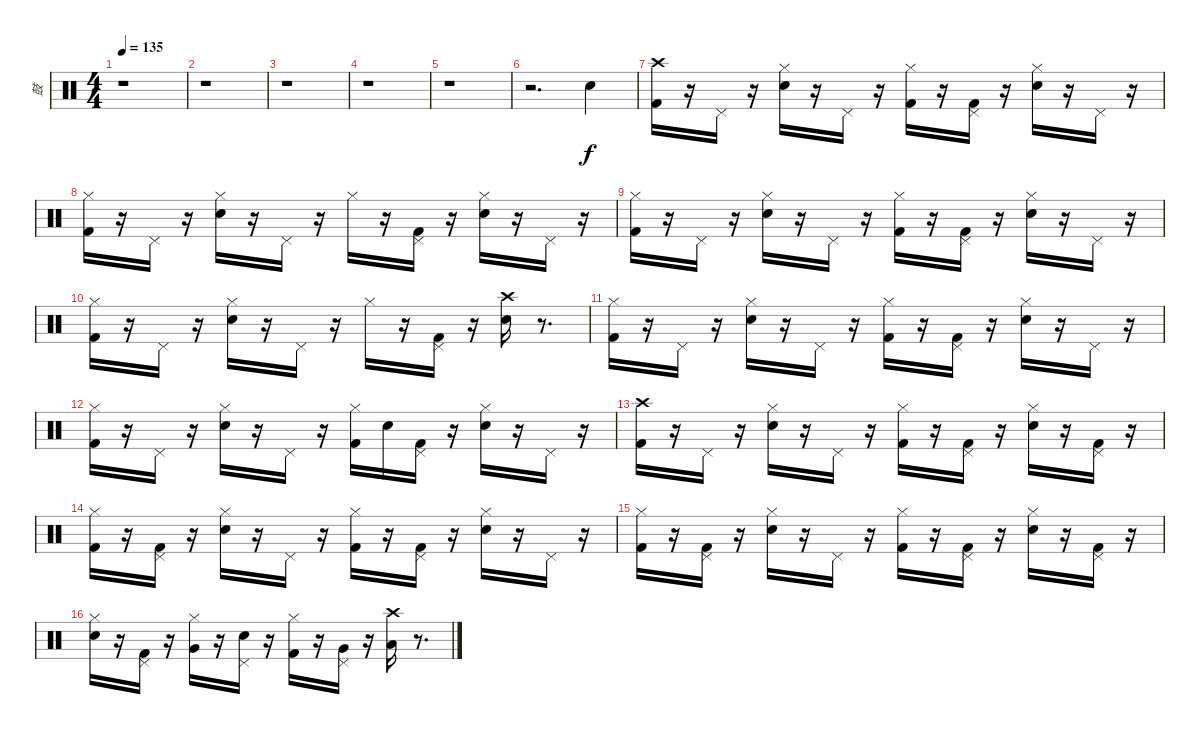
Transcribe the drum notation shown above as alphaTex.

\track ("鼓" "鼓") {instrument percussion}
\staff {score}
\articulation defaults
\ts (4 4)
\tempo 135
\clef neutral
\ks c
r.1{dy f} |
r.1 |
r.1 |
r.1 |
r.1 |
r.2{d} "Electric Snare (hit)".4 |
("Crash high (hit)" "Kick (hit) 2").16 r.16 "Pedal Hi-Hat (hit)".16 r.16 ("Hi-Hat (closed)" "Electric Snare (hit)").16 r.16 "Pedal Hi-Hat (hit)".16 r.16 ("Hi-Hat (closed)" "Kick (hit) 2").16 r.16 ("Pedal Hi-Hat (hit)" "Kick (hit) 2").16 r.16 ("Hi-Hat (closed)" "Electric Snare (hit)").16 r.16 "Pedal Hi-Hat (hit)".16 r.16 |
("Hi-Hat (closed)" "Kick (hit) 2").16 r.16 "Pedal Hi-Hat (hit)".16 r.16 ("Electric Snare (hit)" "Hi-Hat (closed)").16 r.16 "Pedal Hi-Hat (hit)".16 r.16 "Hi-Hat (closed)".16 r.16 ("Kick (hit) 2" "Pedal Hi-Hat (hit)").16 r.16 ("Electric Snare (hit)" "Hi-Hat (closed)").16 r.16 "Pedal Hi-Hat (hit)".16 r.16 |
("Hi-Hat (closed)" "Kick (hit) 2").16 r.16 "Pedal Hi-Hat (hit)".16 r.16 ("Electric Snare (hit)" "Hi-Hat (closed)").16 r.16 "Pedal Hi-Hat (hit)".16 r.16 ("Kick (hit) 2" "Hi-Hat (closed)").16 r.16 ("Kick (hit) 2" "Pedal Hi-Hat (hit)").16 r.16 ("Electric Snare (hit)" "Hi-Hat (closed)").16 r.16 "Pedal Hi-Hat (hit)".16 r.16 |
("Kick (hit) 2" "Hi-Hat (closed)").16 r.16 "Pedal Hi-Hat (hit)".16 r.16 ("Hi-Hat (closed)" "Electric Snare (hit)").16 r.16 "Pedal Hi-Hat (hit)".16 r.16 "Hi-Hat (closed)".16 r.16 ("Pedal Hi-Hat (hit)" "Kick (hit) 2").16 r.16 ("Crash high (hit)" "Electric Snare (hit)").16 r.8{d} |
("Hi-Hat (closed)" "Kick (hit) 2").16 r.16 "Pedal Hi-Hat (hit)".16 r.16 ("Hi-Hat (closed)" "Electric Snare (hit)").16 r.16 "Pedal Hi-Hat (hit)".16 r.16 ("Hi-Hat (closed)" "Kick (hit) 2").16 r.16 ("Pedal Hi-Hat (hit)" "Kick (hit) 2").16 r.16 ("Hi-Hat (closed)" "Electric Snare (hit)").16 r.16 "Pedal Hi-Hat (hit)".16 r.16 |
("Hi-Hat (closed)" "Kick (hit) 2").16 r.16 "Pedal Hi-Hat (hit)".16 r.16 ("Electric Snare (hit)" "Hi-Hat (closed)").16 r.16 "Pedal Hi-Hat (hit)".16 r.16 ("Kick (hit) 2" "Hi-Hat (closed)").16 "Electric Snare (hit)".16 ("Kick (hit) 2" "Pedal Hi-Hat (hit)").16 r.16 ("Electric Snare (hit)" "Hi-Hat (closed)").16 r.16 "Pedal Hi-Hat (hit)".16 r.16 |
("Crash high (hit)" "Kick (hit) 2").16 r.16 "Pedal Hi-Hat (hit)".16 r.16 ("Hi-Hat (closed)" "Electric Snare (hit)").16 r.16 "Pedal Hi-Hat (hit)".16 r.16 ("Hi-Hat (closed)" "Kick (hit) 2").16 r.16 ("Pedal Hi-Hat (hit)" "Kick (hit) 2").16 r.16 ("Hi-Hat (closed)" "Electric Snare (hit)").16 r.16 ("Kick (hit) 2" "Pedal Hi-Hat (hit)").16 r.16 |
("Hi-Hat (closed)" "Kick (hit) 2").16 r.16 ("Kick (hit) 2" "Pedal Hi-Hat (hit)").16 r.16 ("Hi-Hat (closed)" "Electric Snare (hit)").16 r.16 "Pedal Hi-Hat (hit)".16 r.16 ("Hi-Hat (closed)" "Kick (hit) 2").16 r.16 ("Pedal Hi-Hat (hit)" "Kick (hit) 2").16 r.16 ("Hi-Hat (closed)" "Electric Snare (hit)").16 r.16 "Pedal Hi-Hat (hit)".16 r.16 |
("Hi-Hat (closed)" "Kick (hit) 2").16 r.16 ("Pedal Hi-Hat (hit)" "Kick (hit) 2").16 r.16 ("Electric Snare (hit)" "Hi-Hat (closed)").16 r.16 "Pedal Hi-Hat (hit)".16 r.16 ("Kick (hit) 2" "Hi-Hat (closed)").16 r.16 ("Kick (hit) 2" "Pedal Hi-Hat (hit)").16 r.16 ("Electric Snare (hit)" "Hi-Hat (closed)").16 r.16 ("Kick (hit) 2" "Pedal Hi-Hat (hit)").16 r.16 |
("Hi-Hat (closed)" "Electric Snare (hit)").16 r.16 ("Pedal Hi-Hat (hit)" "Kick (hit) 2").16 r.16 ("Hi-Hat (closed)" "Very Low Tom (hit)").16 r.16 ("Pedal Hi-Hat (hit)" "Electric Snare (hit)").16 r.16 ("Hi-Hat (closed)" "Kick (hit) 2").16 r.16 ("Pedal Hi-Hat (hit)" "Very Low Tom (hit)").16 r.16 ("Crash high (hit)" "Low Floor Tom (hit)").16 r.8{d}
